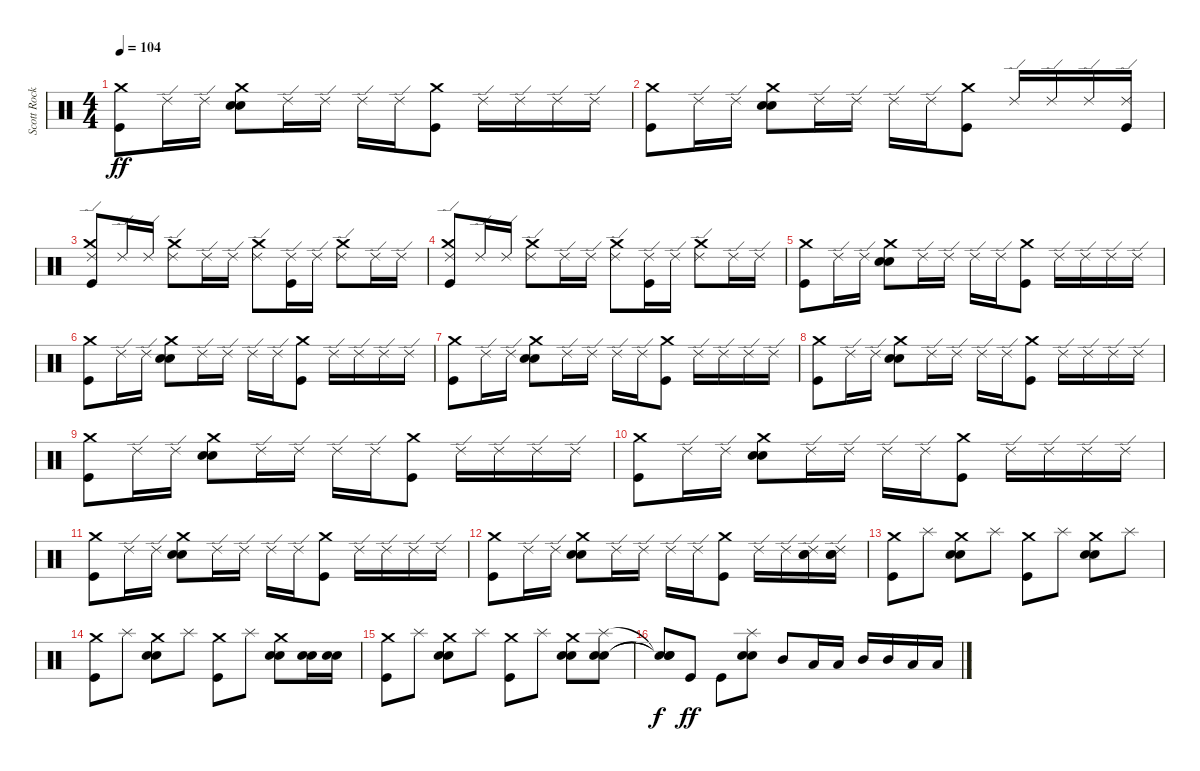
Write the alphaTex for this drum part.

\track ("Scott Rockenfield" "Scott Rock") {instrument percussion}
\staff {score}
\articulation defaults
\ts (4 4)
\tempo 104
\clef neutral
\ks c
("Kick (hit)" "Crash medium (hit)").8{dy ff} "Ride (edge) 2".16 "Ride (edge) 2".16 ("Snare (hit) 2" "Electric Snare (hit)" "Crash medium (hit)").8 "Ride (edge) 2".16 "Ride (edge) 2".16 "Ride (edge) 2".16 "Ride (edge) 2".16 ("Kick (hit)" "Crash medium (hit)").8 "Ride (edge) 2".16 "Ride (edge) 2".16 "Ride (edge) 2".16 "Ride (edge) 2".16 |
("Kick (hit)" "Crash medium (hit)").8 "Ride (edge) 2".16 "Ride (edge) 2".16 ("Snare (hit) 2" "Electric Snare (hit)" "Crash medium (hit)").8 "Ride (edge) 2".16 "Ride (edge) 2".16 "Ride (edge) 2".16 "Ride (edge) 2".16 ("Kick (hit)" "Crash medium (hit)").8 "Ride (edge) 2".16 "Ride (edge) 2".16 "Ride (edge) 2".16 ("Kick (hit)" "Ride (edge) 2").16 |
("Kick (hit)" "Crash medium (hit)" "Ride (edge) 2").8 "Ride (edge) 2".16 "Ride (edge) 2".16 ("Crash medium (hit)" "Ride (edge) 2").8 "Ride (edge) 2".16 "Ride (edge) 2".16 ("Crash medium (hit)" "Ride (edge) 2").8 ("Kick (hit)" "Ride (edge) 2").16 "Ride (edge) 2".16 ("Crash medium (hit)" "Ride (edge) 2").8 "Ride (edge) 2".16 "Ride (edge) 2".16 |
("Kick (hit)" "Crash medium (hit)" "Ride (edge) 2").8 "Ride (edge) 2".16 "Ride (edge) 2".16 ("Crash medium (hit)" "Ride (edge) 2").8 "Ride (edge) 2".16 "Ride (edge) 2".16 ("Crash medium (hit)" "Ride (edge) 2").8 ("Kick (hit)" "Ride (edge) 2").16 "Ride (edge) 2".16 ("Crash medium (hit)" "Ride (edge) 2").8 "Ride (edge) 2".16 "Ride (edge) 2".16 |
("Kick (hit)" "Crash medium (hit)").8 "Ride (edge) 2".16 "Ride (edge) 2".16 ("Snare (hit) 2" "Electric Snare (hit)" "Crash medium (hit)").8 "Ride (edge) 2".16 "Ride (edge) 2".16 "Ride (edge) 2".16 "Ride (edge) 2".16 ("Kick (hit)" "Crash medium (hit)").8 "Ride (edge) 2".16 "Ride (edge) 2".16 "Ride (edge) 2".16 "Ride (edge) 2".16 |
("Kick (hit)" "Crash medium (hit)").8 "Ride (edge) 2".16 "Ride (edge) 2".16 ("Snare (hit) 2" "Electric Snare (hit)" "Crash medium (hit)").8 "Ride (edge) 2".16 "Ride (edge) 2".16 "Ride (edge) 2".16 "Ride (edge) 2".16 ("Kick (hit)" "Crash medium (hit)").8 "Ride (edge) 2".16 "Ride (edge) 2".16 "Ride (edge) 2".16 "Ride (edge) 2".16 |
("Kick (hit)" "Crash medium (hit)").8 "Ride (edge) 2".16 "Ride (edge) 2".16 ("Snare (hit) 2" "Electric Snare (hit)" "Crash medium (hit)").8 "Ride (edge) 2".16 "Ride (edge) 2".16 "Ride (edge) 2".16 "Ride (edge) 2".16 ("Kick (hit)" "Crash medium (hit)").8 "Ride (edge) 2".16 "Ride (edge) 2".16 "Ride (edge) 2".16 "Ride (edge) 2".16 |
("Kick (hit)" "Crash medium (hit)").8 "Ride (edge) 2".16 "Ride (edge) 2".16 ("Snare (hit) 2" "Electric Snare (hit)" "Crash medium (hit)").8 "Ride (edge) 2".16 "Ride (edge) 2".16 "Ride (edge) 2".16 "Ride (edge) 2".16 ("Kick (hit)" "Crash medium (hit)").8 "Ride (edge) 2".16 "Ride (edge) 2".16 "Ride (edge) 2".16 "Ride (edge) 2".16 |
("Kick (hit)" "Crash medium (hit)").8 "Ride (edge) 2".16 "Ride (edge) 2".16 ("Snare (hit) 2" "Electric Snare (hit)" "Crash medium (hit)").8 "Ride (edge) 2".16 "Ride (edge) 2".16 "Ride (edge) 2".16 "Ride (edge) 2".16 ("Kick (hit)" "Crash medium (hit)").8 "Ride (edge) 2".16 "Ride (edge) 2".16 "Ride (edge) 2".16 "Ride (edge) 2".16 |
("Kick (hit)" "Crash medium (hit)").8 "Ride (edge) 2".16 "Ride (edge) 2".16 ("Snare (hit) 2" "Electric Snare (hit)" "Crash medium (hit)").8 "Ride (edge) 2".16 "Ride (edge) 2".16 "Ride (edge) 2".16 "Ride (edge) 2".16 ("Kick (hit)" "Crash medium (hit)").8 "Ride (edge) 2".16 "Ride (edge) 2".16 "Ride (edge) 2".16 "Ride (edge) 2".16 |
("Kick (hit)" "Crash medium (hit)").8 "Ride (edge) 2".16 "Ride (edge) 2".16 ("Snare (hit) 2" "Electric Snare (hit)" "Crash medium (hit)").8 "Ride (edge) 2".16 "Ride (edge) 2".16 "Ride (edge) 2".16 "Ride (edge) 2".16 ("Kick (hit)" "Crash medium (hit)").8 "Ride (edge) 2".16 "Ride (edge) 2".16 "Ride (edge) 2".16 "Ride (edge) 2".16 |
("Kick (hit)" "Crash medium (hit)").8 "Ride (edge) 2".16 "Ride (edge) 2".16 ("Snare (hit) 2" "Electric Snare (hit)" "Crash medium (hit)").8 "Ride (edge) 2".16 "Ride (edge) 2".16 "Ride (edge) 2".16 "Ride (edge) 2".16 ("Kick (hit)" "Crash medium (hit)").8 "Ride (edge) 2".16 "Ride (edge) 2".16 ("Snare (hit) 2" "Electric Snare (hit)" "Ride (edge) 2").16 ("Snare (hit) 2" "Electric Snare (hit)" "Ride (edge) 2").16 |
("Kick (hit)" "Crash medium (hit)").8 "Splash (hit)".8 ("Snare (hit) 2" "Electric Snare (hit)" "Crash medium (hit)").8 "Splash (hit)".8 ("Kick (hit)" "Crash medium (hit)").8 "Splash (hit)".8 ("Snare (hit) 2" "Electric Snare (hit)" "Crash medium (hit)").8 "Splash (hit)".8 |
("Kick (hit)" "Crash medium (hit)").8 "Splash (hit)".8 ("Snare (hit) 2" "Electric Snare (hit)" "Crash medium (hit)").8 "Splash (hit)".8 ("Kick (hit)" "Crash medium (hit)").8 "Splash (hit)".8 ("Snare (hit) 2" "Electric Snare (hit)" "Crash medium (hit)").8 ("Snare (hit) 2" "Electric Snare (hit)").16 ("Snare (hit) 2" "Electric Snare (hit)").16 |
("Kick (hit)" "Crash medium (hit)").8 "Splash (hit)".8 ("Snare (hit) 2" "Electric Snare (hit)" "Crash medium (hit)").8 "Splash (hit)".8 ("Kick (hit)" "Crash medium (hit)").8 "Splash (hit)".8 ("Snare (hit) 2" "Electric Snare (hit)" "Crash medium (hit)").8 ("Snare (hit) 2" "Electric Snare (hit)" "Splash (hit)").8 |
("Snare (hit)"{t} "Snare (hit)"{t} "Snare (hit)"{t}).8{dy f} "Kick (hit)".8{dy ff} "Kick (hit)".8 ("Snare (hit) 2" "Electric Snare (hit)" "Splash (hit)").8 "Mid Tom (hit)".8 "Low Tom (hit)".16 "Low Tom (hit)".16 "Mid Tom (hit)".16 "Mid Tom (hit)".16 "Low Tom (hit)".16 "Low Tom (hit)".16
